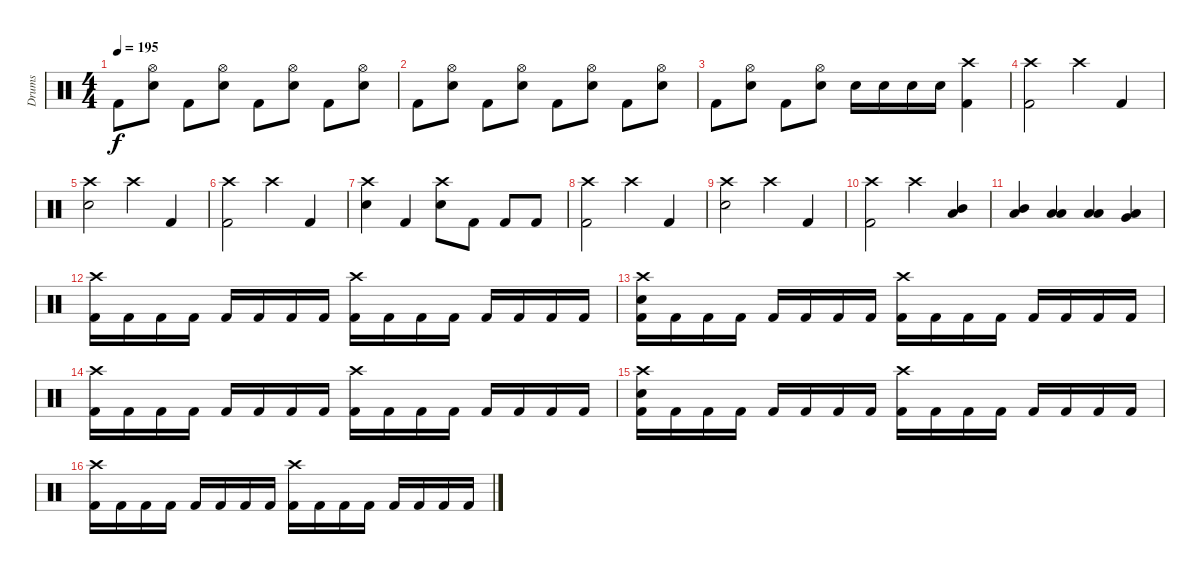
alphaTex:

\track ("Drums" "Drums") {instrument percussion}
\staff {score}
\articulation defaults
\ts (4 4)
\tempo 195
\clef neutral
\ks c "Kick (hit) 2".8{dy f}
("Hi-Hat (open)" "Snare (hit) 2").8 "Kick (hit) 2".8 ("Hi-Hat (open)" "Snare (hit) 2").8 "Kick (hit) 2".8 ("Hi-Hat (open)" "Snare (hit) 2").8 "Kick (hit) 2".8 ("Hi-Hat (open)" "Snare (hit) 2").8 |
"Kick (hit) 2".8 ("Hi-Hat (open)" "Snare (hit) 2").8 "Kick (hit) 2".8 ("Hi-Hat (open)" "Snare (hit) 2").8 "Kick (hit) 2".8 ("Hi-Hat (open)" "Snare (hit) 2").8 "Kick (hit) 2".8 ("Hi-Hat (open)" "Snare (hit) 2").8 |
"Kick (hit) 2".8 ("Hi-Hat (open)" "Snare (hit) 2").8 "Kick (hit) 2".8 ("Hi-Hat (open)" "Snare (hit) 2").8 "Snare (hit) 2".16 "Snare (hit) 2".16 "Snare (hit) 2".16 "Snare (hit) 2".16 ("Crash high (hit)" "Kick (hit) 2").4 |
("Crash high (hit)" "Kick (hit) 2").2 "Crash high (hit)".4 "Kick (hit) 2".4 |
("Crash high (hit)" "Snare (hit) 2").2 "Crash high (hit)".4 "Kick (hit) 2".4 |
("Crash high (hit)" "Kick (hit) 2").2 "Crash high (hit)".4 "Kick (hit) 2".4 |
("Crash high (hit)" "Snare (hit) 2").4 "Kick (hit) 2".4 ("Crash high (hit)" "Snare (hit) 2").8 "Kick (hit) 2".8 "Kick (hit) 2".8 "Kick (hit) 2".8 |
("Crash high (hit)" "Kick (hit) 2").2 "Crash high (hit)".4 "Kick (hit) 2".4 |
("Crash high (hit)" "Snare (hit) 2").2 "Crash high (hit)".4 "Kick (hit) 2".4 |
("Crash high (hit)" "Kick (hit) 2").2 "Crash high (hit)".4 ("Mid Tom (hit)" "Low Floor Tom (hit)").4 |
("Mid Tom (hit)" "Low Floor Tom (hit)").4 ("Low Tom (hit)" "Low Floor Tom (hit)").4 ("Low Tom (hit)" "Low Floor Tom (hit)").4 ("Very Low Tom (hit)" "Low Floor Tom (hit)").4 |
("Crash high (hit)" "Kick (hit) 2").16 "Kick (hit) 2".16 "Kick (hit) 2".16 "Kick (hit) 2".16 "Kick (hit) 2".16 "Kick (hit) 2".16 "Kick (hit) 2".16 "Kick (hit) 2".16 ("Crash high (hit)" "Kick (hit) 2").16 "Kick (hit) 2".16 "Kick (hit) 2".16 "Kick (hit) 2".16 "Kick (hit) 2".16 "Kick (hit) 2".16 "Kick (hit) 2".16 "Kick (hit) 2".16 |
("Crash high (hit)" "Snare (hit) 2" "Kick (hit) 2").16 "Kick (hit) 2".16 "Kick (hit) 2".16 "Kick (hit) 2".16 "Kick (hit) 2".16 "Kick (hit) 2".16 "Kick (hit) 2".16 "Kick (hit) 2".16 ("Crash high (hit)" "Kick (hit) 2").16 "Kick (hit) 2".16 "Kick (hit) 2".16 "Kick (hit) 2".16 "Kick (hit) 2".16 "Kick (hit) 2".16 "Kick (hit) 2".16 "Kick (hit) 2".16 |
("Crash high (hit)" "Kick (hit) 2").16 "Kick (hit) 2".16 "Kick (hit) 2".16 "Kick (hit) 2".16 "Kick (hit) 2".16 "Kick (hit) 2".16 "Kick (hit) 2".16 "Kick (hit) 2".16 ("Crash high (hit)" "Kick (hit) 2").16 "Kick (hit) 2".16 "Kick (hit) 2".16 "Kick (hit) 2".16 "Kick (hit) 2".16 "Kick (hit) 2".16 "Kick (hit) 2".16 "Kick (hit) 2".16 |
("Crash high (hit)" "Snare (hit) 2" "Kick (hit) 2").16 "Kick (hit) 2".16 "Kick (hit) 2".16 "Kick (hit) 2".16 "Kick (hit) 2".16 "Kick (hit) 2".16 "Kick (hit) 2".16 "Kick (hit) 2".16 ("Crash high (hit)" "Kick (hit) 2").16 "Kick (hit) 2".16 "Kick (hit) 2".16 "Kick (hit) 2".16 "Kick (hit) 2".16 "Kick (hit) 2".16 "Kick (hit) 2".16 "Kick (hit) 2".16 |
("Crash high (hit)" "Kick (hit) 2").16 "Kick (hit) 2".16 "Kick (hit) 2".16 "Kick (hit) 2".16 "Kick (hit) 2".16 "Kick (hit) 2".16 "Kick (hit) 2".16 "Kick (hit) 2".16 ("Crash high (hit)" "Kick (hit) 2").16 "Kick (hit) 2".16 "Kick (hit) 2".16 "Kick (hit) 2".16 "Kick (hit) 2".16 "Kick (hit) 2".16 "Kick (hit) 2".16 "Kick (hit) 2".16
